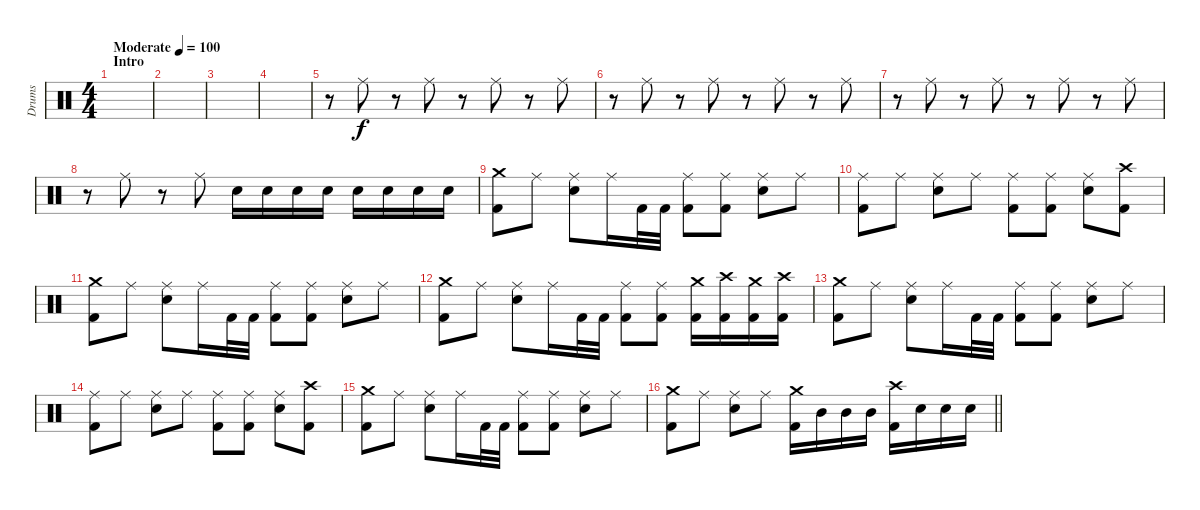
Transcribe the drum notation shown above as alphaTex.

\track ("Drums" "Drums") {instrument percussion}
\staff {score}
\articulation defaults
\ts (4 4)
\section ("" "Intro")
\tempo (100 "Moderate")
\clef neutral
\ks c
|
|
|
|
r.8 "Ride (middle)".8 r.8 "Ride (middle)".8 r.8 "Ride (middle)".8 r.8 "Ride (middle)".8 |
r.8 "Ride (middle)".8 r.8 "Ride (middle)".8 r.8 "Ride (middle)".8 r.8 "Ride (middle)".8 |
r.8 "Ride (middle)".8 r.8 "Ride (middle)".8 r.8 "Ride (middle)".8 r.8 "Ride (middle)".8 |
r.8 "Ride (middle)".8 r.8 "Ride (middle)".8 "Snare (hit) 2".16 "Snare (hit) 2".16 "Snare (hit) 2".16 "Snare (hit) 2".16 "Snare (hit) 2".16 "Snare (hit) 2".16 "Snare (hit) 2".16 "Snare (hit) 2".16 |
("Kick (hit) 2" "Crash medium (hit)").8 "Ride (middle)".8 ("Snare (hit) 2" "Ride (middle)").8 "Ride (middle)".16 "Kick (hit) 2".32 "Kick (hit) 2".32 ("Kick (hit) 2" "Ride (middle)").8 ("Kick (hit) 2" "Ride (middle)").8 ("Snare (hit) 2" "Ride (middle)").8 "Ride (middle)".8 |
("Kick (hit) 2" "Ride (middle)").8 "Ride (middle)".8 ("Snare (hit) 2" "Ride (middle)").8 "Ride (middle)".8 ("Kick (hit) 2" "Ride (middle)").8 ("Kick (hit) 2" "Ride (middle)").8 ("Snare (hit) 2" "Ride (middle)").8 ("Kick (hit) 2" "Crash high (hit)").8 |
("Kick (hit) 2" "Crash medium (hit)").8 "Ride (middle)".8 ("Snare (hit) 2" "Ride (middle)").8 "Ride (middle)".16 "Kick (hit) 2".32 "Kick (hit) 2".32 ("Kick (hit) 2" "Ride (middle)").8 ("Kick (hit) 2" "Ride (middle)").8 ("Snare (hit) 2" "Ride (middle)").8 "Ride (middle)".8 |
("Kick (hit) 2" "Crash medium (hit)").8 "Ride (middle)".8 ("Snare (hit) 2" "Ride (middle)").8 "Ride (middle)".16 "Kick (hit) 2".32 "Kick (hit) 2".32 ("Kick (hit) 2" "Ride (middle)").8 ("Kick (hit) 2" "Ride (middle)").8 ("Kick (hit) 2" "Crash medium (hit)").16 ("Kick (hit) 2" "Crash high (hit)").16 ("Kick (hit) 2" "Crash medium (hit)").16 ("Kick (hit) 2" "Crash high (hit)").16 |
("Kick (hit) 2" "Crash medium (hit)").8 "Ride (middle)".8 ("Snare (hit) 2" "Ride (middle)").8 "Ride (middle)".16 "Kick (hit) 2".32 "Kick (hit) 2".32 ("Kick (hit) 2" "Ride (middle)").8 ("Kick (hit) 2" "Ride (middle)").8 ("Snare (hit) 2" "Ride (middle)").8 "Ride (middle)".8 |
("Kick (hit) 2" "Ride (middle)").8 "Ride (middle)".8 ("Snare (hit) 2" "Ride (middle)").8 "Ride (middle)".8 ("Kick (hit) 2" "Ride (middle)").8 ("Kick (hit) 2" "Ride (middle)").8 ("Snare (hit) 2" "Ride (middle)").8 ("Kick (hit) 2" "Crash high (hit)").8 |
("Kick (hit) 2" "Crash medium (hit)").8 "Ride (middle)".8 ("Snare (hit) 2" "Ride (middle)").8 "Ride (middle)".16 "Kick (hit) 2".32 "Kick (hit) 2".32 ("Kick (hit) 2" "Ride (middle)").8 ("Kick (hit) 2" "Ride (middle)").8 ("Snare (hit) 2" "Ride (middle)").8 "Ride (middle)".8 |
\barLineRight lightlight
("Kick (hit) 2" "Crash medium (hit)").8 "Ride (middle)".8 ("Snare (hit) 2" "Ride (middle)").8 "Ride (middle)".8 ("Kick (hit) 2" "Crash medium (hit)").16 "Mid Tom (hit)".16 "Mid Tom (hit)".16 "Mid Tom (hit)".16 ("Kick (hit) 2" "Crash high (hit)").16 "Snare (hit) 2".16 "Snare (hit) 2".16 "Snare (hit) 2".16
